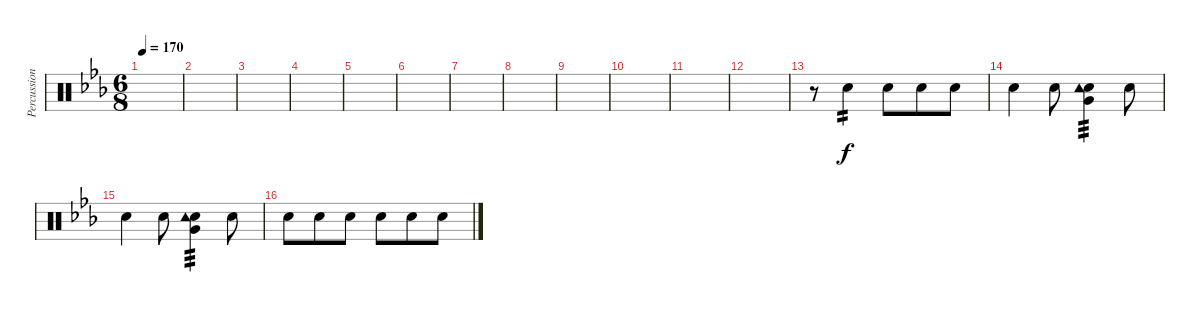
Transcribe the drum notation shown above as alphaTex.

\track ("Percussioni" "Percussion") {instrument percussion}
\staff {score}
\articulation defaults
\ts (6 8)
\tempo 170
\clef neutral
\ks eb
|
|
|
|
|
|
|
|
|
|
|
|
r.8 "Electric Snare (hit)".4{tp 2} "Electric Snare (hit)".8 "Electric Snare (hit)".8 "Electric Snare (hit)".8 |
"Electric Snare (hit)".4 "Electric Snare (hit)".8 ("Very Low Tom (hit)" "Electric Snare (hit)" "Tambourine (hit)").4{tp 3} "Electric Snare (hit)".8 |
"Electric Snare (hit)".4 "Electric Snare (hit)".8 ("Very Low Tom (hit)" "Electric Snare (hit)" "Tambourine (hit)").4{tp 3} "Electric Snare (hit)".8 |
"Electric Snare (hit)".8 "Electric Snare (hit)".8 "Electric Snare (hit)".8 "Electric Snare (hit)".8 "Electric Snare (hit)".8 "Electric Snare (hit)".8
